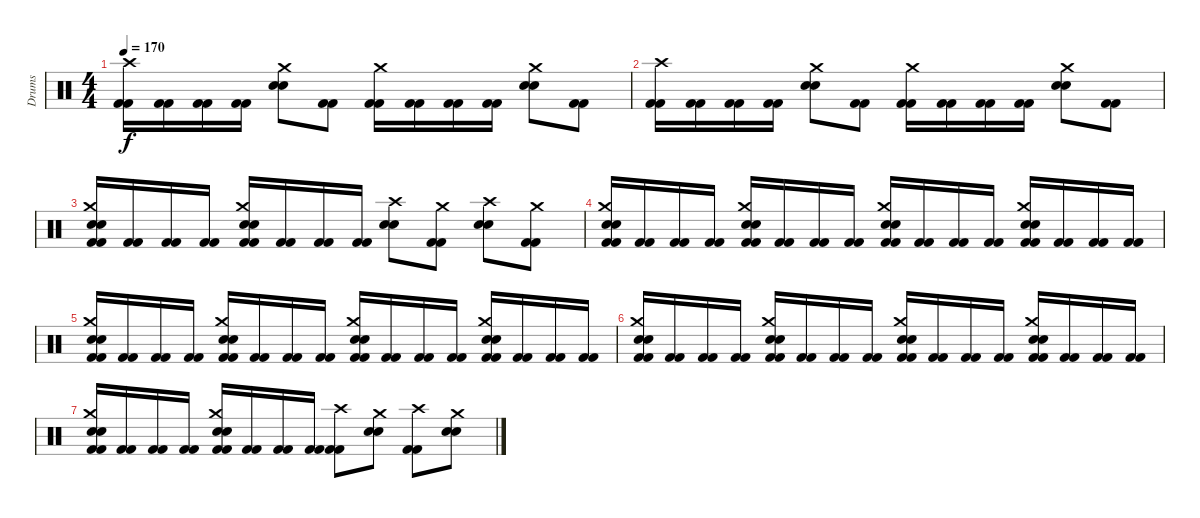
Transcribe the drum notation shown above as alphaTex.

\track ("Drums" "Drums") {instrument percussion}
\staff {score}
\articulation defaults
\ts (4 4)
\tempo 170
\clef neutral
\ks c
("Crash high (hit)" "Kick (hit) 2" "Kick (hit) 2").16{dy f} ("Kick (hit) 2" "Kick (hit) 2").16 ("Kick (hit) 2" "Kick (hit) 2").16 ("Kick (hit) 2" "Kick (hit) 2").16 ("Crash medium (hit)" "Snare (hit) 2" "Snare (hit) 2").8 ("Kick (hit) 2" "Kick (hit) 2").8 ("Crash medium (hit)" "Kick (hit) 2" "Kick (hit) 2").16 ("Kick (hit) 2" "Kick (hit) 2").16 ("Kick (hit) 2" "Kick (hit) 2").16 ("Kick (hit) 2" "Kick (hit) 2").16 ("Crash medium (hit)" "Snare (hit) 2" "Snare (hit) 2").8 ("Kick (hit) 2" "Kick (hit) 2").8 |
("Crash high (hit)" "Kick (hit) 2" "Kick (hit) 2").16 ("Kick (hit) 2" "Kick (hit) 2").16 ("Kick (hit) 2" "Kick (hit) 2").16 ("Kick (hit) 2" "Kick (hit) 2").16 ("Crash medium (hit)" "Snare (hit) 2" "Snare (hit) 2").8 ("Kick (hit) 2" "Kick (hit) 2").8 ("Crash medium (hit)" "Kick (hit) 2" "Kick (hit) 2").16 ("Kick (hit) 2" "Kick (hit) 2").16 ("Kick (hit) 2" "Kick (hit) 2").16 ("Kick (hit) 2" "Kick (hit) 2").16 ("Crash medium (hit)" "Snare (hit) 2" "Snare (hit) 2").8 ("Kick (hit) 2" "Kick (hit) 2").8 |
("Crash medium (hit)" "Kick (hit) 2" "Kick (hit) 2" "Snare (hit) 2" "Snare (hit) 2").16 ("Kick (hit) 2" "Kick (hit) 2").16 ("Kick (hit) 2" "Kick (hit) 2").16 ("Kick (hit) 2" "Kick (hit) 2").16 ("Crash medium (hit)" "Kick (hit) 2" "Kick (hit) 2" "Snare (hit) 2" "Snare (hit) 2").16 ("Kick (hit) 2" "Kick (hit) 2").16 ("Kick (hit) 2" "Kick (hit) 2").16 ("Kick (hit) 2" "Kick (hit) 2").16 ("Crash high (hit)" "Snare (hit) 2" "Snare (hit) 2").8 ("Crash medium (hit)" "Kick (hit) 2" "Kick (hit) 2").8 ("Crash high (hit)" "Snare (hit) 2" "Snare (hit) 2").8 ("Crash medium (hit)" "Kick (hit) 2" "Kick (hit) 2").8 |
("Crash medium (hit)" "Kick (hit) 2" "Kick (hit) 2" "Snare (hit) 2" "Snare (hit) 2").16 ("Kick (hit) 2" "Kick (hit) 2").16 ("Kick (hit) 2" "Kick (hit) 2").16 ("Kick (hit) 2" "Kick (hit) 2").16 ("Crash medium (hit)" "Kick (hit) 2" "Kick (hit) 2" "Snare (hit) 2" "Snare (hit) 2").16 ("Kick (hit) 2" "Kick (hit) 2").16 ("Kick (hit) 2" "Kick (hit) 2").16 ("Kick (hit) 2" "Kick (hit) 2").16 ("Crash medium (hit)" "Kick (hit) 2" "Kick (hit) 2" "Snare (hit) 2" "Snare (hit) 2").16 ("Kick (hit) 2" "Kick (hit) 2").16 ("Kick (hit) 2" "Kick (hit) 2").16 ("Kick (hit) 2" "Kick (hit) 2").16 ("Crash medium (hit)" "Kick (hit) 2" "Kick (hit) 2" "Snare (hit) 2" "Snare (hit) 2").16 ("Kick (hit) 2" "Kick (hit) 2").16 ("Kick (hit) 2" "Kick (hit) 2").16 ("Kick (hit) 2" "Kick (hit) 2").16 |
("Crash medium (hit)" "Kick (hit) 2" "Kick (hit) 2" "Snare (hit) 2" "Snare (hit) 2").16 ("Kick (hit) 2" "Kick (hit) 2").16 ("Kick (hit) 2" "Kick (hit) 2").16 ("Kick (hit) 2" "Kick (hit) 2").16 ("Crash medium (hit)" "Kick (hit) 2" "Kick (hit) 2" "Snare (hit) 2" "Snare (hit) 2").16 ("Kick (hit) 2" "Kick (hit) 2").16 ("Kick (hit) 2" "Kick (hit) 2").16 ("Kick (hit) 2" "Kick (hit) 2").16 ("Crash medium (hit)" "Kick (hit) 2" "Kick (hit) 2" "Snare (hit) 2" "Snare (hit) 2").16 ("Kick (hit) 2" "Kick (hit) 2").16 ("Kick (hit) 2" "Kick (hit) 2").16 ("Kick (hit) 2" "Kick (hit) 2").16 ("Crash medium (hit)" "Kick (hit) 2" "Kick (hit) 2" "Snare (hit) 2" "Snare (hit) 2").16 ("Kick (hit) 2" "Kick (hit) 2").16 ("Kick (hit) 2" "Kick (hit) 2").16 ("Kick (hit) 2" "Kick (hit) 2").16 |
("Crash medium (hit)" "Kick (hit) 2" "Kick (hit) 2" "Snare (hit) 2" "Snare (hit) 2").16 ("Kick (hit) 2" "Kick (hit) 2").16 ("Kick (hit) 2" "Kick (hit) 2").16 ("Kick (hit) 2" "Kick (hit) 2").16 ("Crash medium (hit)" "Kick (hit) 2" "Kick (hit) 2" "Snare (hit) 2" "Snare (hit) 2").16 ("Kick (hit) 2" "Kick (hit) 2").16 ("Kick (hit) 2" "Kick (hit) 2").16 ("Kick (hit) 2" "Kick (hit) 2").16 ("Crash medium (hit)" "Kick (hit) 2" "Kick (hit) 2" "Snare (hit) 2" "Snare (hit) 2").16 ("Kick (hit) 2" "Kick (hit) 2").16 ("Kick (hit) 2" "Kick (hit) 2").16 ("Kick (hit) 2" "Kick (hit) 2").16 ("Crash medium (hit)" "Kick (hit) 2" "Kick (hit) 2" "Snare (hit) 2" "Snare (hit) 2").16 ("Kick (hit) 2" "Kick (hit) 2").16 ("Kick (hit) 2" "Kick (hit) 2").16 ("Kick (hit) 2" "Kick (hit) 2").16 |
("Crash medium (hit)" "Kick (hit) 2" "Kick (hit) 2" "Snare (hit) 2" "Snare (hit) 2").16 ("Kick (hit) 2" "Kick (hit) 2").16 ("Kick (hit) 2" "Kick (hit) 2").16 ("Kick (hit) 2" "Kick (hit) 2").16 ("Crash medium (hit)" "Kick (hit) 2" "Kick (hit) 2" "Snare (hit) 2" "Snare (hit) 2").16 ("Kick (hit) 2" "Kick (hit) 2").16 ("Kick (hit) 2" "Kick (hit) 2").16 ("Kick (hit) 2" "Kick (hit) 2").16 ("Crash high (hit)" "Kick (hit) 2" "Kick (hit) 2").8 ("Crash medium (hit)" "Snare (hit) 2" "Snare (hit) 2").8 ("Crash high (hit)" "Kick (hit) 2" "Kick (hit) 2").8 ("Crash medium (hit)" "Snare (hit) 2" "Snare (hit) 2").8
